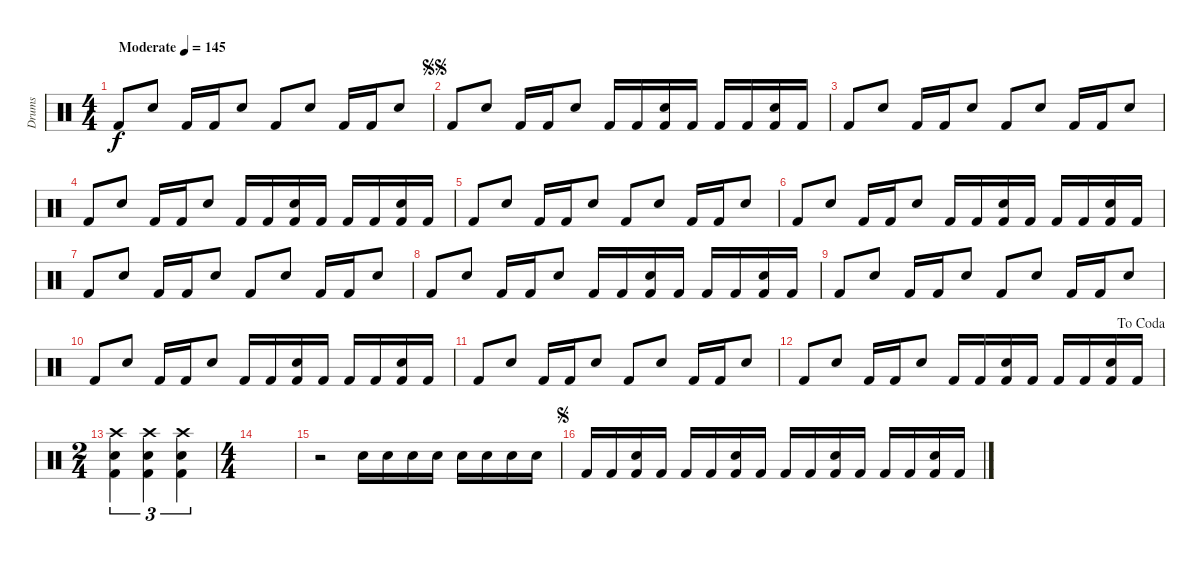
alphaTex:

\track ("Drums" "Drums") {instrument percussion}
\staff {score}
\articulation defaults
\ts (4 4)
\tempo (145 "Moderate")
\clef neutral
\ks c "Kick (hit) 2".8{dy f} "Snare (hit) 2".8 "Kick (hit) 2".16 "Kick (hit) 2".16 "Snare (hit) 2".8 "Kick (hit) 2".8 "Snare (hit) 2".8 "Kick (hit) 2".16 "Kick (hit) 2".16 "Snare (hit) 2".8
|
\jump segnosegno "Kick (hit) 2".8 "Snare (hit) 2".8 "Kick (hit) 2".16 "Kick (hit) 2".16 "Snare (hit) 2".8 "Kick (hit) 2".16 "Kick (hit) 2".16
("Snare (hit) 2" "Kick (hit) 2").16 "Kick (hit) 2".16 "Kick (hit) 2".16 "Kick (hit) 2".16 ("Snare (hit) 2" "Kick (hit) 2").16 "Kick (hit) 2".16 |
"Kick (hit) 2".8 "Snare (hit) 2".8 "Kick (hit) 2".16 "Kick (hit) 2".16 "Snare (hit) 2".8 "Kick (hit) 2".8 "Snare (hit) 2".8 "Kick (hit) 2".16 "Kick (hit) 2".16 "Snare (hit) 2".8 |
"Kick (hit) 2".8 "Snare (hit) 2".8 "Kick (hit) 2".16 "Kick (hit) 2".16 "Snare (hit) 2".8 "Kick (hit) 2".16 "Kick (hit) 2".16 ("Snare (hit) 2" "Kick (hit) 2").16 "Kick (hit) 2".16 "Kick (hit) 2".16 "Kick (hit) 2".16 ("Snare (hit) 2" "Kick (hit) 2").16 "Kick (hit) 2".16 |
"Kick (hit) 2".8 "Snare (hit) 2".8 "Kick (hit) 2".16 "Kick (hit) 2".16 "Snare (hit) 2".8 "Kick (hit) 2".8 "Snare (hit) 2".8 "Kick (hit) 2".16 "Kick (hit) 2".16 "Snare (hit) 2".8 |
"Kick (hit) 2".8 "Snare (hit) 2".8 "Kick (hit) 2".16 "Kick (hit) 2".16 "Snare (hit) 2".8 "Kick (hit) 2".16 "Kick (hit) 2".16 ("Snare (hit) 2" "Kick (hit) 2").16 "Kick (hit) 2".16 "Kick (hit) 2".16 "Kick (hit) 2".16 ("Snare (hit) 2" "Kick (hit) 2").16 "Kick (hit) 2".16 |
"Kick (hit) 2".8 "Snare (hit) 2".8 "Kick (hit) 2".16 "Kick (hit) 2".16 "Snare (hit) 2".8 "Kick (hit) 2".8 "Snare (hit) 2".8 "Kick (hit) 2".16 "Kick (hit) 2".16 "Snare (hit) 2".8 |
"Kick (hit) 2".8 "Snare (hit) 2".8 "Kick (hit) 2".16 "Kick (hit) 2".16 "Snare (hit) 2".8 "Kick (hit) 2".16 "Kick (hit) 2".16 ("Snare (hit) 2" "Kick (hit) 2").16 "Kick (hit) 2".16 "Kick (hit) 2".16 "Kick (hit) 2".16 ("Snare (hit) 2" "Kick (hit) 2").16 "Kick (hit) 2".16 |
"Kick (hit) 2".8 "Snare (hit) 2".8 "Kick (hit) 2".16 "Kick (hit) 2".16 "Snare (hit) 2".8 "Kick (hit) 2".8 "Snare (hit) 2".8 "Kick (hit) 2".16 "Kick (hit) 2".16 "Snare (hit) 2".8 |
"Kick (hit) 2".8 "Snare (hit) 2".8 "Kick (hit) 2".16 "Kick (hit) 2".16 "Snare (hit) 2".8 "Kick (hit) 2".16 "Kick (hit) 2".16 ("Snare (hit) 2" "Kick (hit) 2").16 "Kick (hit) 2".16 "Kick (hit) 2".16 "Kick (hit) 2".16 ("Snare (hit) 2" "Kick (hit) 2").16 "Kick (hit) 2".16 |
"Kick (hit) 2".8 "Snare (hit) 2".8 "Kick (hit) 2".16 "Kick (hit) 2".16 "Snare (hit) 2".8 "Kick (hit) 2".8 "Snare (hit) 2".8 "Kick (hit) 2".16 "Kick (hit) 2".16 "Snare (hit) 2".8 |
\jump dacoda "Kick (hit) 2".8 "Snare (hit) 2".8 "Kick (hit) 2".16 "Kick (hit) 2".16 "Snare (hit) 2".8 "Kick (hit) 2".16 "Kick (hit) 2".16
("Snare (hit) 2" "Kick (hit) 2").16 "Kick (hit) 2".16 "Kick (hit) 2".16 "Kick (hit) 2".16 ("Snare (hit) 2" "Kick (hit) 2").16 "Kick (hit) 2".16 |
\ts (2 4)
("Crash high (hit)" "Snare (hit) 2" "Kick (hit) 2").4{tu (3 2)} ("Crash high (hit)" "Snare (hit) 2" "Kick (hit) 2").4{tu (3 2)} ("Crash high (hit)" "Snare (hit) 2" "Kick (hit) 2").4{tu (3 2)} |
\ts (4 4)
|
r.2 "Snare (hit) 2".16 "Snare (hit) 2".16 "Snare (hit) 2".16 "Snare (hit) 2".16 "Snare (hit) 2".16 "Snare (hit) 2".16 "Snare (hit) 2".16 "Snare (hit) 2".16 |
\jump segno "Kick (hit) 2".16 "Kick (hit) 2".16
("Snare (hit) 2" "Kick (hit) 2").16 "Kick (hit) 2".16 "Kick (hit) 2".16 "Kick (hit) 2".16 ("Snare (hit) 2" "Kick (hit) 2").16 "Kick (hit) 2".16 "Kick (hit) 2".16 "Kick (hit) 2".16 ("Snare (hit) 2" "Kick (hit) 2").16 "Kick (hit) 2".16 "Kick (hit) 2".16 "Kick (hit) 2".16 ("Snare (hit) 2" "Kick (hit) 2").16 "Kick (hit) 2".16
